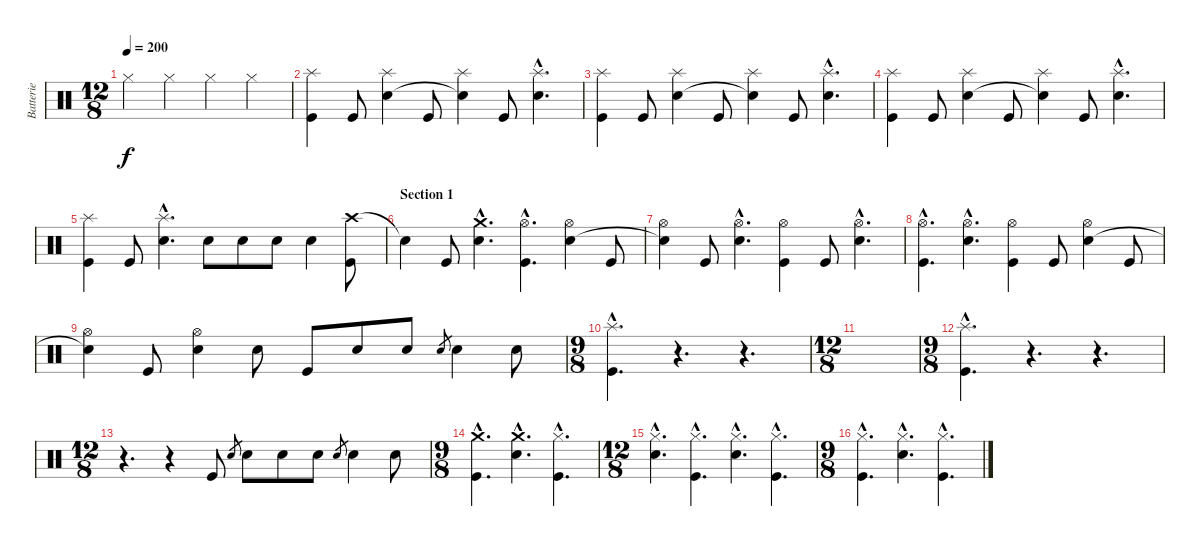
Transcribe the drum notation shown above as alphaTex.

\track ("Batterie" "Batterie") {instrument percussion}
\staff {score}
\articulation defaults
\ts (12 8)
\tempo 200
\clef neutral
\ks c "Hi-Hat (closed)".4{dy f} "Hi-Hat (closed)".4 "Hi-Hat (closed)".4 "Hi-Hat (closed)".4
|
("Splash (hit)" "Kick (hit)").4 "Kick (hit)".8 ("Splash (hit)" "Electric Snare (hit)").4 "Kick (hit)".8 ("Splash (hit)" "Snare (hit)"{t}).4 "Kick (hit)".8 ("Splash (hit)"{hac} "Electric Snare (hit)"{hac}).4{d} |
("Splash (hit)" "Kick (hit)").4 "Kick (hit)".8 ("Splash (hit)" "Electric Snare (hit)").4 "Kick (hit)".8 ("Splash (hit)" "Snare (hit)"{t}).4 "Kick (hit)".8 ("Splash (hit)"{hac} "Electric Snare (hit)"{hac}).4{d} |
("Splash (hit)" "Kick (hit)").4 "Kick (hit)".8 ("Splash (hit)" "Electric Snare (hit)").4 "Kick (hit)".8 ("Splash (hit)" "Snare (hit)"{t}).4 "Kick (hit)".8 ("Splash (hit)"{hac} "Electric Snare (hit)"{hac}).4{d} |
("Splash (hit)" "Kick (hit)").4 "Kick (hit)".8 ("Splash (hit)"{hac} "Electric Snare (hit)"{hac}).4{d} "Electric Snare (hit)".8 "Electric Snare (hit)".8 "Electric Snare (hit)".8 "Electric Snare (hit)".4 ("Crash high (hit)" "Kick (hit)").8 |
\section ("" "Section 1")
"Snare (hit)"{t}.4 "Kick (hit)".8 ("Crash medium (hit)"{hac} "Electric Snare (hit)"{hac}).4{d} ("Hi-Hat (open)"{hac} "Kick (hit)"{hac}).4{d} ("Hi-Hat (open)" "Electric Snare (hit)").4 "Kick (hit)".8 |
("Hi-Hat (open)" "Snare (hit)"{t}).4 "Kick (hit)".8 ("Hi-Hat (open)"{hac} "Electric Snare (hit)"{hac}).4{d} ("Hi-Hat (open)" "Kick (hit)").4 "Kick (hit)".8 ("Hi-Hat (open)"{hac} "Electric Snare (hit)"{hac}).4{d} |
("Hi-Hat (open)"{hac} "Kick (hit)"{hac}).4{d} ("Hi-Hat (open)"{hac} "Electric Snare (hit)"{hac}).4{d} ("Hi-Hat (open)" "Kick (hit)").4 "Kick (hit)".8 ("Hi-Hat (open)" "Electric Snare (hit)").4 "Kick (hit)".8 |
("Hi-Hat (open)" "Snare (hit)"{t}).4 "Kick (hit)".8 ("Hi-Hat (open)" "Electric Snare (hit)").4 "Electric Snare (hit)".8 "Kick (hit)".8 "Electric Snare (hit)".8 "Electric Snare (hit)".8 "Electric Snare (hit)".8{gr} "Electric Snare (hit)".4 "Electric Snare (hit)".8 |
\ts (9 8)
("Splash (hit)"{hac} "Kick (hit)"{hac}).4{d} r.4{d} r.4{d} |
\ts (12 8)
|
\ts (9 8)
("Splash (hit)"{hac} "Kick (hit)"{hac}).4{d} r.4{d} r.4{d} |
\ts (12 8)
r.4{d} r.4 "Kick (hit)".8 "Electric Snare (hit)".8{gr} "Electric Snare (hit)".8 "Electric Snare (hit)".8 "Electric Snare (hit)".8 "Electric Snare (hit)".8{gr} "Electric Snare (hit)".4 "Electric Snare (hit)".8 |
\ts (9 8)
("Crash medium (hit)"{hac} "Kick (hit)"{hac}).4{d} ("Crash medium (hit)"{hac} "Electric Snare (hit)"{hac}).4{d} ("Hi-Hat (closed)"{hac} "Kick (hit)"{hac}).4{d} |
\ts (12 8)
("Hi-Hat (closed)"{hac} "Electric Snare (hit)"{hac}).4{d} ("Hi-Hat (closed)"{hac} "Kick (hit)"{hac}).4{d} ("Hi-Hat (closed)"{hac} "Electric Snare (hit)"{hac}).4{d} ("Hi-Hat (closed)"{hac} "Kick (hit)"{hac}).4{d} |
\ts (9 8)
("Hi-Hat (closed)"{hac} "Kick (hit)"{hac}).4{d} ("Hi-Hat (closed)"{hac} "Electric Snare (hit)"{hac}).4{d} ("Hi-Hat (closed)"{hac} "Kick (hit)"{hac}).4{d}
